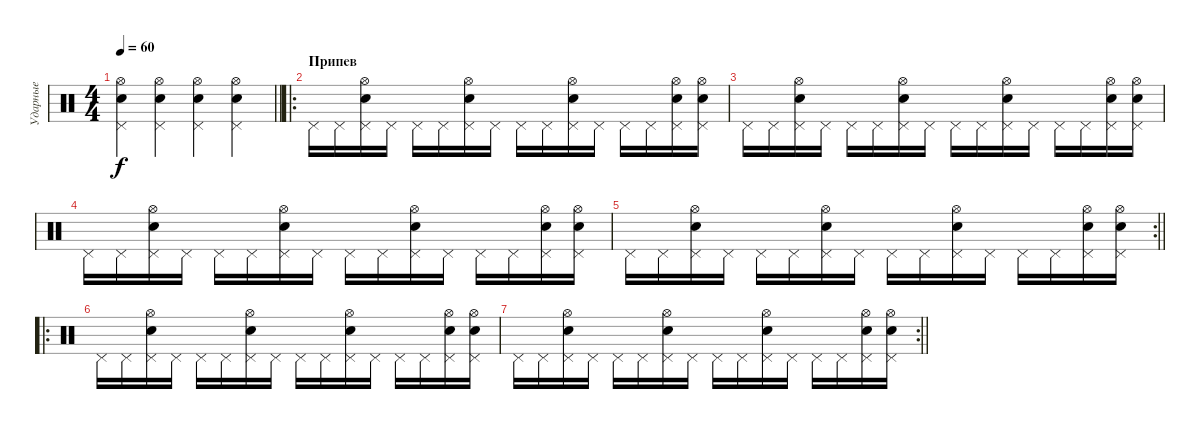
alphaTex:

\track ("Ударные" "Ударные") {instrument percussion}
\staff {score}
\articulation defaults
\ts (4 4)
\tempo 60
\clef neutral
\barLineRight lightlight
\ks c
("Pedal Hi-Hat (hit)" "Electric Snare (hit)" "Hi-Hat (open)").4{dy f} ("Pedal Hi-Hat (hit)" "Electric Snare (hit)" "Hi-Hat (open)").4 ("Pedal Hi-Hat (hit)" "Electric Snare (hit)" "Hi-Hat (open)").4 ("Pedal Hi-Hat (hit)" "Electric Snare (hit)" "Hi-Hat (open)").4 |
\ro
\section ("" "Припев")
"Pedal Hi-Hat (hit)".16 "Pedal Hi-Hat (hit)".16 ("Pedal Hi-Hat (hit)" "Electric Snare (hit)" "Hi-Hat (open)").16 "Pedal Hi-Hat (hit)".16 "Pedal Hi-Hat (hit)".16 "Pedal Hi-Hat (hit)".16 ("Pedal Hi-Hat (hit)" "Electric Snare (hit)" "Hi-Hat (open)").16 "Pedal Hi-Hat (hit)".16 "Pedal Hi-Hat (hit)".16 "Pedal Hi-Hat (hit)".16 ("Pedal Hi-Hat (hit)" "Electric Snare (hit)" "Hi-Hat (open)").16 "Pedal Hi-Hat (hit)".16 "Pedal Hi-Hat (hit)".16 "Pedal Hi-Hat (hit)".16 ("Pedal Hi-Hat (hit)" "Electric Snare (hit)" "Hi-Hat (open)").16 ("Pedal Hi-Hat (hit)" "Electric Snare (hit)" "Hi-Hat (open)").16 |
"Pedal Hi-Hat (hit)".16 "Pedal Hi-Hat (hit)".16 ("Pedal Hi-Hat (hit)" "Electric Snare (hit)" "Hi-Hat (open)").16 "Pedal Hi-Hat (hit)".16 "Pedal Hi-Hat (hit)".16 "Pedal Hi-Hat (hit)".16 ("Pedal Hi-Hat (hit)" "Electric Snare (hit)" "Hi-Hat (open)").16 "Pedal Hi-Hat (hit)".16 "Pedal Hi-Hat (hit)".16 "Pedal Hi-Hat (hit)".16 ("Pedal Hi-Hat (hit)" "Electric Snare (hit)" "Hi-Hat (open)").16 "Pedal Hi-Hat (hit)".16 "Pedal Hi-Hat (hit)".16 "Pedal Hi-Hat (hit)".16 ("Pedal Hi-Hat (hit)" "Electric Snare (hit)" "Hi-Hat (open)").16 ("Pedal Hi-Hat (hit)" "Electric Snare (hit)" "Hi-Hat (open)").16 |
"Pedal Hi-Hat (hit)".16 "Pedal Hi-Hat (hit)".16 ("Pedal Hi-Hat (hit)" "Electric Snare (hit)" "Hi-Hat (open)").16 "Pedal Hi-Hat (hit)".16 "Pedal Hi-Hat (hit)".16 "Pedal Hi-Hat (hit)".16 ("Pedal Hi-Hat (hit)" "Electric Snare (hit)" "Hi-Hat (open)").16 "Pedal Hi-Hat (hit)".16 "Pedal Hi-Hat (hit)".16 "Pedal Hi-Hat (hit)".16 ("Pedal Hi-Hat (hit)" "Electric Snare (hit)" "Hi-Hat (open)").16 "Pedal Hi-Hat (hit)".16 "Pedal Hi-Hat (hit)".16 "Pedal Hi-Hat (hit)".16 ("Pedal Hi-Hat (hit)" "Electric Snare (hit)" "Hi-Hat (open)").16 ("Pedal Hi-Hat (hit)" "Electric Snare (hit)" "Hi-Hat (open)").16 |
\rc 2
\barLineRight lightlight "Pedal Hi-Hat (hit)".16 "Pedal Hi-Hat (hit)".16
("Pedal Hi-Hat (hit)" "Electric Snare (hit)" "Hi-Hat (open)").16 "Pedal Hi-Hat (hit)".16 "Pedal Hi-Hat (hit)".16 "Pedal Hi-Hat (hit)".16 ("Pedal Hi-Hat (hit)" "Electric Snare (hit)" "Hi-Hat (open)").16 "Pedal Hi-Hat (hit)".16 "Pedal Hi-Hat (hit)".16 "Pedal Hi-Hat (hit)".16 ("Pedal Hi-Hat (hit)" "Electric Snare (hit)" "Hi-Hat (open)").16 "Pedal Hi-Hat (hit)".16 "Pedal Hi-Hat (hit)".16 "Pedal Hi-Hat (hit)".16 ("Pedal Hi-Hat (hit)" "Electric Snare (hit)" "Hi-Hat (open)").16 ("Pedal Hi-Hat (hit)" "Electric Snare (hit)" "Hi-Hat (open)").16 |
\ro "Pedal Hi-Hat (hit)".16 "Pedal Hi-Hat (hit)".16
("Pedal Hi-Hat (hit)" "Electric Snare (hit)" "Hi-Hat (open)").16 "Pedal Hi-Hat (hit)".16 "Pedal Hi-Hat (hit)".16 "Pedal Hi-Hat (hit)".16 ("Pedal Hi-Hat (hit)" "Electric Snare (hit)" "Hi-Hat (open)").16 "Pedal Hi-Hat (hit)".16 "Pedal Hi-Hat (hit)".16 "Pedal Hi-Hat (hit)".16 ("Pedal Hi-Hat (hit)" "Electric Snare (hit)" "Hi-Hat (open)").16 "Pedal Hi-Hat (hit)".16 "Pedal Hi-Hat (hit)".16 "Pedal Hi-Hat (hit)".16 ("Pedal Hi-Hat (hit)" "Electric Snare (hit)" "Hi-Hat (open)").16 ("Pedal Hi-Hat (hit)" "Electric Snare (hit)" "Hi-Hat (open)").16 |
\rc 2
\barLineRight lightlight "Pedal Hi-Hat (hit)".16 "Pedal Hi-Hat (hit)".16
("Pedal Hi-Hat (hit)" "Electric Snare (hit)" "Hi-Hat (open)").16 "Pedal Hi-Hat (hit)".16 "Pedal Hi-Hat (hit)".16 "Pedal Hi-Hat (hit)".16 ("Pedal Hi-Hat (hit)" "Electric Snare (hit)" "Hi-Hat (open)").16 "Pedal Hi-Hat (hit)".16 "Pedal Hi-Hat (hit)".16 "Pedal Hi-Hat (hit)".16 ("Pedal Hi-Hat (hit)" "Electric Snare (hit)" "Hi-Hat (open)").16 "Pedal Hi-Hat (hit)".16 "Pedal Hi-Hat (hit)".16 "Pedal Hi-Hat (hit)".16 ("Pedal Hi-Hat (hit)" "Electric Snare (hit)" "Hi-Hat (open)").16 ("Pedal Hi-Hat (hit)" "Electric Snare (hit)" "Hi-Hat (open)").16
